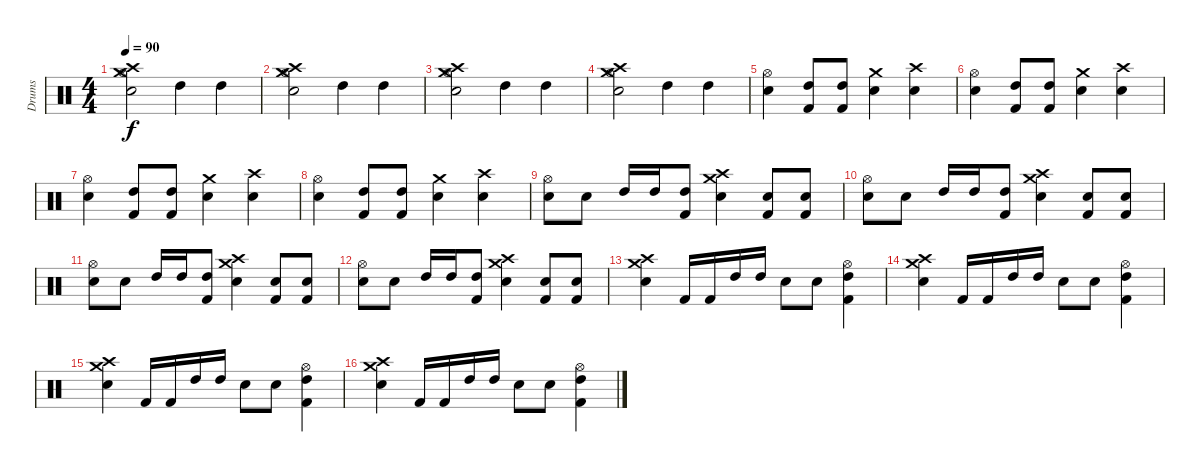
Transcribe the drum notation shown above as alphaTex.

\track ("Drums" "Drums") {instrument percussion}
\staff {score}
\articulation defaults
\ts (4 4)
\tempo 90
\clef neutral
\ks c
("Electric Snare (hit)" "Crash medium (hit)" "Hi-Hat (open)" "Crash high (hit)").2{dy f} "High Tom (hit)".4 "High Tom (hit)".4 |
("Electric Snare (hit)" "Crash medium (hit)" "Hi-Hat (open)" "Crash high (hit)").2 "High Tom (hit)".4 "High Tom (hit)".4 |
("Electric Snare (hit)" "Crash medium (hit)" "Hi-Hat (open)" "Crash high (hit)").2 "High Tom (hit)".4 "High Tom (hit)".4 |
("Electric Snare (hit)" "Crash medium (hit)" "Hi-Hat (open)" "Crash high (hit)").2 "High Tom (hit)".4 "High Tom (hit)".4 |
("Hi-Hat (open)" "Electric Snare (hit)").4 ("Kick (hit) 2" "High Tom (hit)").8 ("High Tom (hit)" "Kick (hit) 2").8 ("Crash medium (hit)" "Electric Snare (hit)").4 ("Electric Snare (hit)" "Crash high (hit)").4 |
("Hi-Hat (open)" "Electric Snare (hit)").4 ("Kick (hit) 2" "High Tom (hit)").8 ("High Tom (hit)" "Kick (hit) 2").8 ("Crash medium (hit)" "Electric Snare (hit)").4 ("Electric Snare (hit)" "Crash high (hit)").4 |
("Hi-Hat (open)" "Electric Snare (hit)").4 ("Kick (hit) 2" "High Tom (hit)").8 ("High Tom (hit)" "Kick (hit) 2").8 ("Crash medium (hit)" "Electric Snare (hit)").4 ("Electric Snare (hit)" "Crash high (hit)").4 |
("Hi-Hat (open)" "Electric Snare (hit)").4 ("Kick (hit) 2" "High Tom (hit)").8 ("High Tom (hit)" "Kick (hit) 2").8 ("Crash medium (hit)" "Electric Snare (hit)").4 ("Electric Snare (hit)" "Crash high (hit)").4 |
("Hi-Hat (open)" "Electric Snare (hit)").8 "Electric Snare (hit)".8 "High Tom (hit)".16 "High Tom (hit)".16 ("Kick (hit) 2" "High Tom (hit)").8 ("Crash high (hit)" "Crash medium (hit)" "Electric Snare (hit)").4 ("Electric Snare (hit)" "Kick (hit) 2").8 ("Kick (hit) 2" "Electric Snare (hit)").8 |
("Hi-Hat (open)" "Electric Snare (hit)").8 "Electric Snare (hit)".8 "High Tom (hit)".16 "High Tom (hit)".16 ("Kick (hit) 2" "High Tom (hit)").8 ("Crash high (hit)" "Crash medium (hit)" "Electric Snare (hit)").4 ("Electric Snare (hit)" "Kick (hit) 2").8 ("Kick (hit) 2" "Electric Snare (hit)").8 |
("Hi-Hat (open)" "Electric Snare (hit)").8 "Electric Snare (hit)".8 "High Tom (hit)".16 "High Tom (hit)".16 ("Kick (hit) 2" "High Tom (hit)").8 ("Crash high (hit)" "Crash medium (hit)" "Electric Snare (hit)").4 ("Electric Snare (hit)" "Kick (hit) 2").8 ("Kick (hit) 2" "Electric Snare (hit)").8 |
("Hi-Hat (open)" "Electric Snare (hit)").8 "Electric Snare (hit)".8 "High Tom (hit)".16 "High Tom (hit)".16 ("Kick (hit) 2" "High Tom (hit)").8 ("Crash high (hit)" "Crash medium (hit)" "Electric Snare (hit)").4 ("Electric Snare (hit)" "Kick (hit) 2").8 ("Kick (hit) 2" "Electric Snare (hit)").8 |
("Crash high (hit)" "Crash medium (hit)" "Electric Snare (hit)").4 "Kick (hit) 2".16 "Kick (hit) 2".16 "High Tom (hit)".16 "High Tom (hit)".16 "Electric Snare (hit)".8 "Electric Snare (hit)".8 ("Kick (hit) 2" "High Tom (hit)" "Hi-Hat (open)").4 |
("Crash high (hit)" "Crash medium (hit)" "Electric Snare (hit)").4 "Kick (hit) 2".16 "Kick (hit) 2".16 "High Tom (hit)".16 "High Tom (hit)".16 "Electric Snare (hit)".8 "Electric Snare (hit)".8 ("Kick (hit) 2" "High Tom (hit)" "Hi-Hat (open)").4 |
("Crash high (hit)" "Crash medium (hit)" "Electric Snare (hit)").4 "Kick (hit) 2".16 "Kick (hit) 2".16 "High Tom (hit)".16 "High Tom (hit)".16 "Electric Snare (hit)".8 "Electric Snare (hit)".8 ("Kick (hit) 2" "High Tom (hit)" "Hi-Hat (open)").4 |
("Crash high (hit)" "Crash medium (hit)" "Electric Snare (hit)").4 "Kick (hit) 2".16 "Kick (hit) 2".16 "High Tom (hit)".16 "High Tom (hit)".16 "Electric Snare (hit)".8 "Electric Snare (hit)".8 ("Kick (hit) 2" "High Tom (hit)" "Hi-Hat (open)").4
